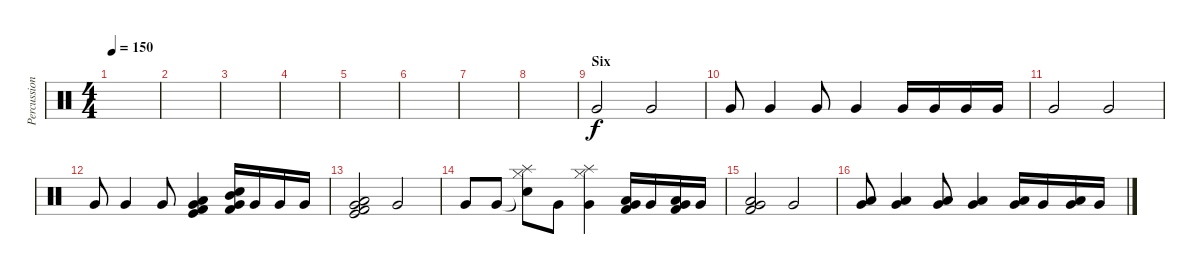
\track ("Percussion" "Percussion") {instrument percussion}
\staff {score}
\articulation defaults
\ts (4 4)
\tempo 150
\clef neutral
\ks c
|
|
|
|
|
|
|
|
\section ("" "Six")
"Very Low Tom (hit)".2{dy f} "Very Low Tom (hit)".2 |
"Very Low Tom (hit)".8 "Very Low Tom (hit)".4 "Very Low Tom (hit)".8 "Very Low Tom (hit)".4 "Very Low Tom (hit)".16 "Very Low Tom (hit)".16 "Very Low Tom (hit)".16 "Very Low Tom (hit)".16 |
"Very Low Tom (hit)".2 "Very Low Tom (hit)".2 |
"Very Low Tom (hit)".8 "Very Low Tom (hit)".4 "Very Low Tom (hit)".8 ("Very Low Tom (hit)" "Kick (hit) 2" "Low Floor Tom (hit)" "Kick (hit)").4 ("Very Low Tom (hit)" "Snare (hit) 2" "Kick (hit) 2" "Mid Tom (hit)").16 "Very Low Tom (hit)".16 "Very Low Tom (hit)".16 "Very Low Tom (hit)".16 |
("Very Low Tom (hit)" "Kick (hit) 2" "Low Floor Tom (hit)" "Kick (hit)").2 "Very Low Tom (hit)".2 |
"Very Low Tom (hit)".8 "Very Low Tom (hit)".8 ("Snare (hit)"{t} "Splash (hit)" "Hi-Hat (closed)").8 "Very Low Tom (hit)".8 ("Very Low Tom (hit)" "Splash (hit)" "Hi-Hat (closed)").4 ("Very Low Tom (hit)" "Low Floor Tom (hit)" "Kick (hit) 2").16 "Very Low Tom (hit)".16 ("Very Low Tom (hit)" "Low Floor Tom (hit)" "Kick (hit) 2").16 "Very Low Tom (hit)".16 |
("Very Low Tom (hit)" "Low Floor Tom (hit)" "Kick (hit) 2").2 "Very Low Tom (hit)".2 |
("Very Low Tom (hit)" "Low Floor Tom (hit)").8 ("Very Low Tom (hit)" "Low Floor Tom (hit)").4 ("Very Low Tom (hit)" "Low Floor Tom (hit)").8 ("Very Low Tom (hit)" "Low Floor Tom (hit)").4 ("Very Low Tom (hit)" "Low Floor Tom (hit)").16 "Very Low Tom (hit)".16 ("Very Low Tom (hit)" "Low Floor Tom (hit)").16 "Very Low Tom (hit)".16
